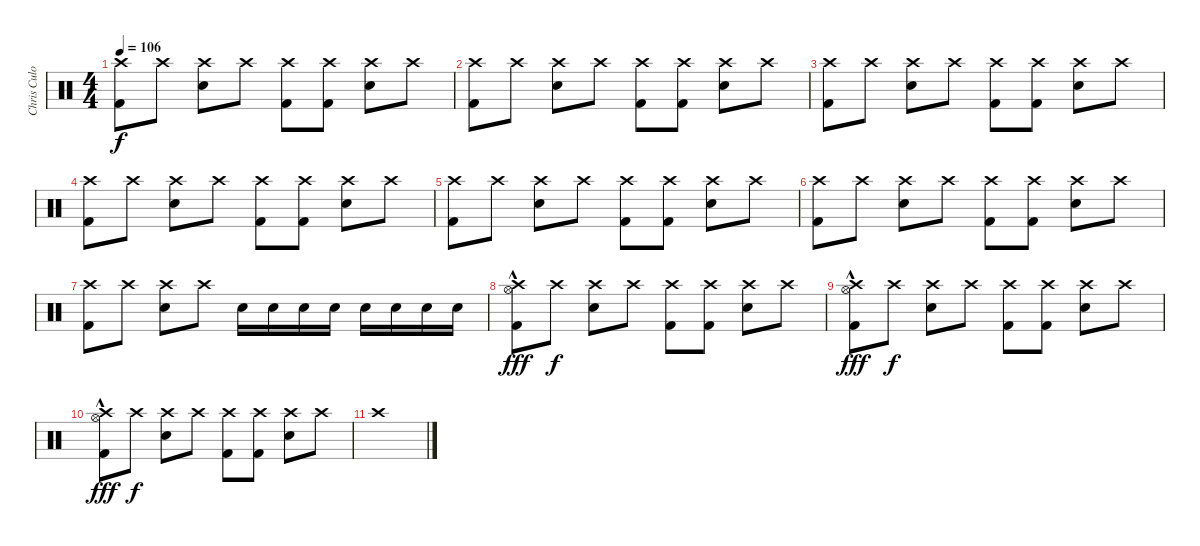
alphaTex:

\track ("Chris Culos" "Chris Culo") {instrument percussion}
\staff {score}
\articulation defaults
\ts (4 4)
\tempo 106
\clef neutral
\ks c
("Crash high (hit)" "Kick (hit) 2").8{dy f} "Crash high (hit)".8 ("Crash high (hit)" "Snare (hit) 2").8 "Crash high (hit)".8 ("Crash high (hit)" "Kick (hit) 2").8 ("Crash high (hit)" "Kick (hit) 2").8 ("Crash high (hit)" "Snare (hit) 2").8 "Crash high (hit)".8 |
("Crash high (hit)" "Kick (hit) 2").8 "Crash high (hit)".8 ("Crash high (hit)" "Snare (hit) 2").8 "Crash high (hit)".8 ("Crash high (hit)" "Kick (hit) 2").8 ("Crash high (hit)" "Kick (hit) 2").8 ("Crash high (hit)" "Snare (hit) 2").8 "Crash high (hit)".8 |
("Crash high (hit)" "Kick (hit) 2").8 "Crash high (hit)".8 ("Crash high (hit)" "Snare (hit) 2").8 "Crash high (hit)".8 ("Crash high (hit)" "Kick (hit) 2").8 ("Crash high (hit)" "Kick (hit) 2").8 ("Crash high (hit)" "Snare (hit) 2").8 "Crash high (hit)".8 |
("Crash high (hit)" "Kick (hit) 2").8 "Crash high (hit)".8 ("Crash high (hit)" "Snare (hit) 2").8 "Crash high (hit)".8 ("Crash high (hit)" "Kick (hit) 2").8 ("Crash high (hit)" "Kick (hit) 2").8 ("Crash high (hit)" "Snare (hit) 2").8 "Crash high (hit)".8 |
("Crash high (hit)" "Kick (hit) 2").8 "Crash high (hit)".8 ("Crash high (hit)" "Snare (hit) 2").8 "Crash high (hit)".8 ("Crash high (hit)" "Kick (hit) 2").8 ("Crash high (hit)" "Kick (hit) 2").8 ("Crash high (hit)" "Snare (hit) 2").8 "Crash high (hit)".8 |
("Crash high (hit)" "Kick (hit) 2").8 "Crash high (hit)".8 ("Crash high (hit)" "Snare (hit) 2").8 "Crash high (hit)".8 ("Crash high (hit)" "Kick (hit) 2").8 ("Crash high (hit)" "Kick (hit) 2").8 ("Crash high (hit)" "Snare (hit) 2").8 "Crash high (hit)".8 |
("Crash high (hit)" "Kick (hit) 2").8 "Crash high (hit)".8 ("Crash high (hit)" "Snare (hit) 2").8 "Crash high (hit)".8 "Snare (hit) 2".16 "Snare (hit) 2".16 "Snare (hit) 2".16 "Snare (hit) 2".16 "Snare (hit) 2".16 "Snare (hit) 2".16 "Snare (hit) 2".16 "Snare (hit) 2".16 |
("Crash high (hit)"{hac} "Hi-Hat (open)" "Kick (hit) 2").8{dy fff} "Crash high (hit)".8{dy f} ("Crash high (hit)" "Snare (hit) 2").8 "Crash high (hit)".8 ("Crash high (hit)" "Kick (hit) 2").8 ("Crash high (hit)" "Kick (hit) 2").8 ("Crash high (hit)" "Snare (hit) 2").8 "Crash high (hit)".8 |
("Crash high (hit)" "Hi-Hat (open)"{hac} "Kick (hit) 2").8{dy fff} "Crash high (hit)".8{dy f} ("Crash high (hit)" "Snare (hit) 2").8 "Crash high (hit)".8 ("Crash high (hit)" "Kick (hit) 2").8 ("Crash high (hit)" "Kick (hit) 2").8 ("Crash high (hit)" "Snare (hit) 2").8 "Crash high (hit)".8 |
("Crash high (hit)"{hac} "Hi-Hat (open)" "Kick (hit) 2").8{dy fff} "Crash high (hit)".8{dy f} ("Crash high (hit)" "Snare (hit) 2").8 "Crash high (hit)".8 ("Crash high (hit)" "Kick (hit) 2").8 ("Crash high (hit)" "Kick (hit) 2").8 ("Crash high (hit)" "Snare (hit) 2").8 "Crash high (hit)".8 |
"Crash high (hit)".1
